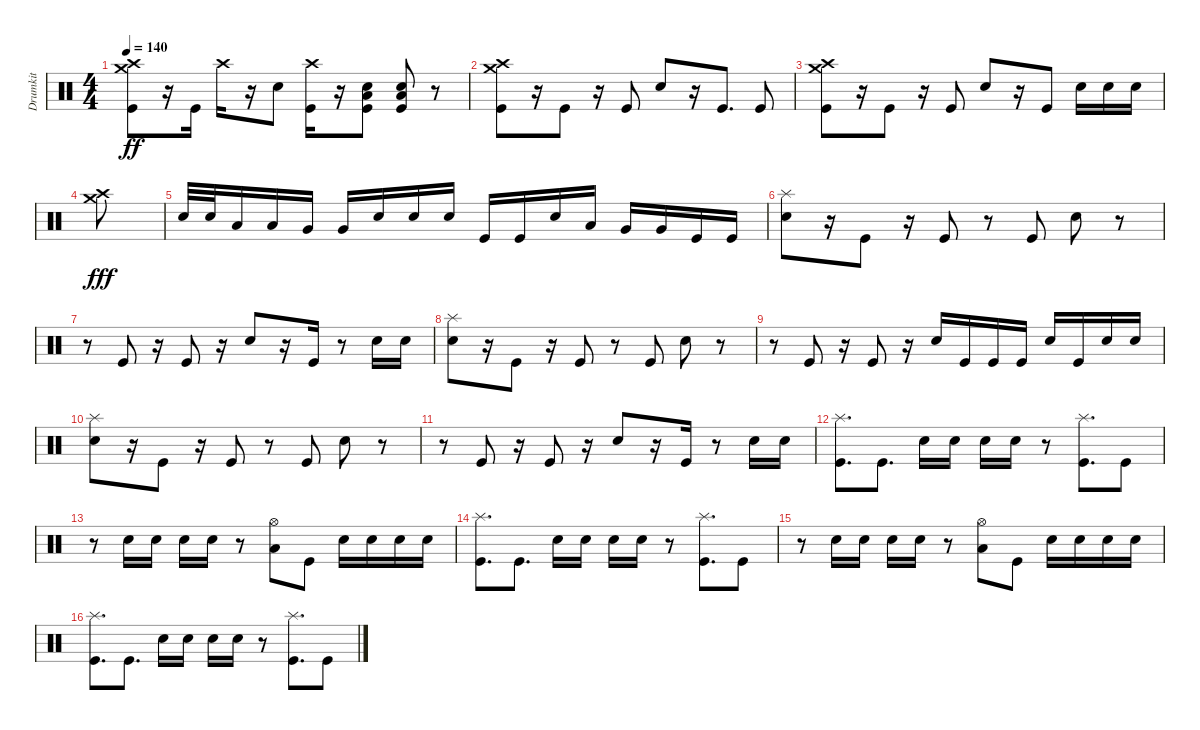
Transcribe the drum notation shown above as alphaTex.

\track ("Drumkit" "Drumkit") {instrument percussion}
\staff {score}
\articulation defaults
\ts (4 4)
\tempo 140
\clef neutral
\ks c
("Crash high (hit)" "Crash medium (hit)" "Kick (hit)").8{dy ff} r.16 "Kick (hit)".16 "Crash high (hit)".16 r.16 "Snare (hit) 2".8 ("Kick (hit)" "Crash high (hit)").16 r.16 ("Snare (hit) 2" "Low Tom (hit)" "Kick (hit)").8 ("Kick (hit)" "Low Tom (hit)" "Snare (hit) 2").8 r.8 |
("Crash high (hit)" "Crash medium (hit)" "Kick (hit)").8 r.16 "Kick (hit)".8 r.16 "Kick (hit)".8 "Snare (hit) 2".8 r.16 "Kick (hit)".8{d} "Kick (hit)".8 |
("Crash high (hit)" "Crash medium (hit)" "Kick (hit)").8 r.16 "Kick (hit)".8 r.16 "Kick (hit)".8 "Snare (hit) 2".8 r.16 "Kick (hit)".8 "Snare (hit) 2".16 "Snare (hit) 2".16 "Snare (hit) 2".16 |
("Crash high (hit)" "Crash medium (hit)").8{dy fff} |
"Snare (hit) 2".32 "Snare (hit) 2".32 "Low Tom (hit)".16 "Low Tom (hit)".16 "Very Low Tom (hit)".16 "Very Low Tom (hit)".16 "Snare (hit) 2".16 "Snare (hit) 2".16 "Snare (hit) 2".16 "Kick (hit)".16 "Kick (hit)".16 "Snare (hit) 2".16 "Low Tom (hit)".16 "Very Low Tom (hit)".16 "Very Low Tom (hit)".16 "Kick (hit)".16 "Kick (hit)".16 |
("Snare (hit) 2" "Splash (hit)").8 r.16 "Kick (hit)".8 r.16 "Kick (hit)".8 r.8 "Kick (hit)".8 "Snare (hit) 2".8 r.8 |
r.8 "Kick (hit)".8 r.16 "Kick (hit)".8 r.16 "Snare (hit) 2".8 r.16 "Kick (hit)".16 r.8 "Snare (hit) 2".16 "Snare (hit) 2".16 |
("Snare (hit) 2" "Splash (hit)").8 r.16 "Kick (hit)".8 r.16 "Kick (hit)".8 r.8 "Kick (hit)".8 "Snare (hit) 2".8 r.8 |
r.8 "Kick (hit)".8 r.16 "Kick (hit)".8 r.16 "Snare (hit) 2".16 "Kick (hit)".16 "Kick (hit)".16 "Kick (hit)".16 "Snare (hit) 2".16 "Kick (hit)".16 "Snare (hit) 2".16 "Snare (hit) 2".16 |
("Snare (hit) 2" "Splash (hit)").8 r.16 "Kick (hit)".8 r.16 "Kick (hit)".8 r.8 "Kick (hit)".8 "Snare (hit) 2".8 r.8 |
r.8 "Kick (hit)".8 r.16 "Kick (hit)".8 r.16 "Snare (hit) 2".8 r.16 "Kick (hit)".16 r.8 "Snare (hit) 2".16 "Snare (hit) 2".16 |
("Kick (hit)" "Splash (hit)").8{d} "Kick (hit)".8{d} "Snare (hit) 2".16 "Snare (hit) 2".16 "Snare (hit) 2".16 "Snare (hit) 2".16 r.8 ("Kick (hit)" "Splash (hit)").8{d} "Kick (hit)".8 |
r.8 "Snare (hit) 2".16 "Snare (hit) 2".16 "Snare (hit) 2".16 "Snare (hit) 2".16 r.8 ("Low Floor Tom (hit)" "Hi-Hat (open)").8 "Kick (hit)".8 "Snare (hit) 2".16 "Snare (hit) 2".16 "Snare (hit) 2".16 "Snare (hit) 2".16 |
("Kick (hit)" "Splash (hit)").8{d} "Kick (hit)".8{d} "Snare (hit) 2".16 "Snare (hit) 2".16 "Snare (hit) 2".16 "Snare (hit) 2".16 r.8 ("Kick (hit)" "Splash (hit)").8{d} "Kick (hit)".8 |
r.8 "Snare (hit) 2".16 "Snare (hit) 2".16 "Snare (hit) 2".16 "Snare (hit) 2".16 r.8 ("Low Floor Tom (hit)" "Hi-Hat (open)").8 "Kick (hit)".8 "Snare (hit) 2".16 "Snare (hit) 2".16 "Snare (hit) 2".16 "Snare (hit) 2".16 |
("Kick (hit)" "Splash (hit)").8{d} "Kick (hit)".8{d} "Snare (hit) 2".16 "Snare (hit) 2".16 "Snare (hit) 2".16 "Snare (hit) 2".16 r.8 ("Kick (hit)" "Splash (hit)").8{d} "Kick (hit)".8
